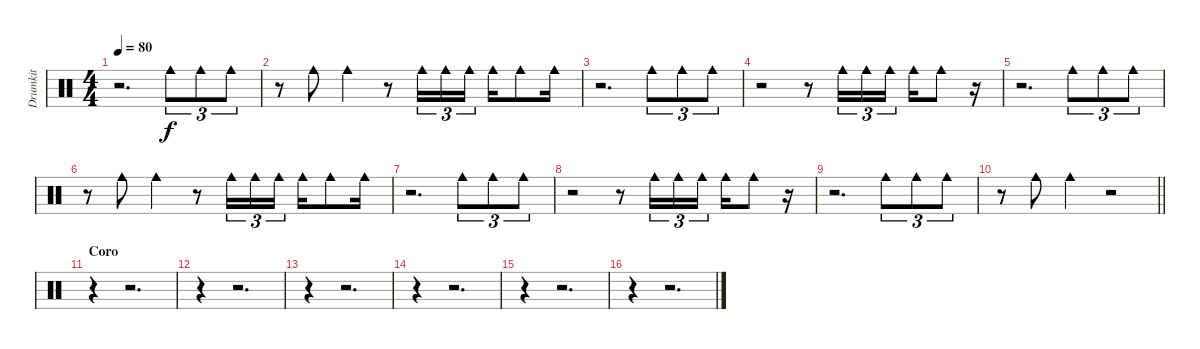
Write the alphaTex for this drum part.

\track ("Drumkit" "Drumkit") {instrument percussion}
\staff {score}
\articulation defaults
\ts (4 4)
\tempo 80
\clef neutral
\ks c
r.2{d dy f} "Cowbell medium (hit)".8{tu (3 2)} "Cowbell medium (hit)".8{tu (3 2)} "Cowbell medium (hit)".8{tu (3 2)} |
r.8 "Cowbell medium (hit)".8 "Cowbell medium (hit)".4 r.8 "Cowbell medium (hit)".16{tu (3 2)} "Cowbell medium (hit)".16{tu (3 2)} "Cowbell medium (hit)".16{tu (3 2)} "Cowbell medium (hit)".16 "Cowbell medium (hit)".8 "Cowbell medium (hit)".16 |
r.2{d} "Cowbell medium (hit)".8{tu (3 2)} "Cowbell medium (hit)".8{tu (3 2)} "Cowbell medium (hit)".8{tu (3 2)} |
r.2 r.8 "Cowbell medium (hit)".16{tu (3 2)} "Cowbell medium (hit)".16{tu (3 2)} "Cowbell medium (hit)".16{tu (3 2)} "Cowbell medium (hit)".16 "Cowbell medium (hit)".8 r.16 |
r.2{d} "Cowbell medium (hit)".8{tu (3 2)} "Cowbell medium (hit)".8{tu (3 2)} "Cowbell medium (hit)".8{tu (3 2)} |
r.8 "Cowbell medium (hit)".8 "Cowbell medium (hit)".4 r.8 "Cowbell medium (hit)".16{tu (3 2)} "Cowbell medium (hit)".16{tu (3 2)} "Cowbell medium (hit)".16{tu (3 2)} "Cowbell medium (hit)".16 "Cowbell medium (hit)".8 "Cowbell medium (hit)".16 |
r.2{d} "Cowbell medium (hit)".8{tu (3 2)} "Cowbell medium (hit)".8{tu (3 2)} "Cowbell medium (hit)".8{tu (3 2)} |
r.2 r.8 "Cowbell medium (hit)".16{tu (3 2)} "Cowbell medium (hit)".16{tu (3 2)} "Cowbell medium (hit)".16{tu (3 2)} "Cowbell medium (hit)".16 "Cowbell medium (hit)".8 r.16 |
r.2{d} "Cowbell medium (hit)".8{tu (3 2)} "Cowbell medium (hit)".8{tu (3 2)} "Cowbell medium (hit)".8{tu (3 2)} |
\barLineRight lightlight
r.8 "Cowbell medium (hit)".8 "Cowbell medium (hit)".4 r.2 |
\section ("" "Coro")
r.4 r.2{d} |
r.4 r.2{d} |
r.4 r.2{d} |
r.4 r.2{d} |
r.4 r.2{d} |
r.4 r.2{d}
